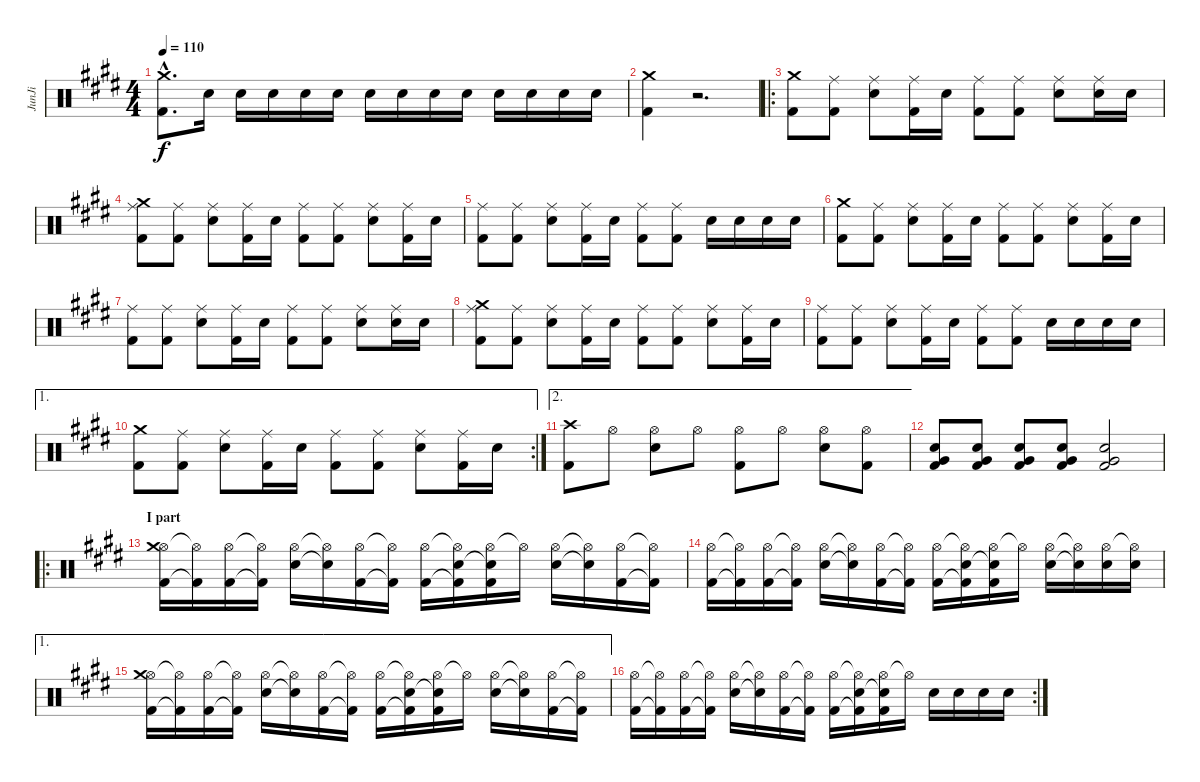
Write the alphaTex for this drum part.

\track ("JunJi" "JunJi") {instrument percussion}
\staff {score}
\articulation defaults
\ts (4 4)
\tempo 110
\clef neutral
\ks c#minor
("Crash medium (hit)"{hac} "Kick (hit) 2"{hac}).8{d dy f} "Snare (hit) 2".16 "Snare (hit) 2".16 "Snare (hit) 2".16 "Snare (hit) 2".16 "Snare (hit) 2".16 "Snare (hit) 2".16 "Snare (hit) 2".16 "Snare (hit) 2".16 "Snare (hit) 2".16 "Snare (hit) 2".16 "Snare (hit) 2".16 "Snare (hit) 2".16 "Snare (hit) 2".16 |
("Crash medium (hit)" "Kick (hit) 2").4 r.2{d} |
\ro
("Crash medium (hit)" "Kick (hit) 2").8 ("Ride (middle)" "Kick (hit) 2").8 ("Ride (middle)" "Snare (hit) 2").8 ("Ride (middle)" "Kick (hit) 2").16 "Snare (hit) 2".16 ("Ride (middle)" "Kick (hit) 2").8 ("Ride (middle)" "Kick (hit) 2").8 ("Ride (middle)" "Snare (hit) 2").8 ("Ride (middle)" "Snare (hit) 2").16 "Snare (hit) 2".16 |
("Ride (middle)" "Kick (hit) 2" "Crash medium (hit)").8 ("Ride (middle)" "Kick (hit) 2").8 ("Ride (middle)" "Snare (hit) 2").8 ("Ride (middle)" "Kick (hit) 2").16 "Snare (hit) 2".16 ("Ride (middle)" "Kick (hit) 2").8 ("Ride (middle)" "Kick (hit) 2").8 ("Ride (middle)" "Snare (hit) 2").8 ("Ride (middle)" "Kick (hit) 2").16 "Snare (hit) 2".16 |
("Ride (middle)" "Kick (hit) 2").8 ("Ride (middle)" "Kick (hit) 2").8 ("Ride (middle)" "Snare (hit) 2").8 ("Ride (middle)" "Kick (hit) 2").16 "Snare (hit) 2".16 ("Ride (middle)" "Kick (hit) 2").8 ("Ride (middle)" "Kick (hit) 2").8 "Snare (hit) 2".16 "Snare (hit) 2".16 "Snare (hit) 2".16 "Snare (hit) 2".16 |
("Crash medium (hit)" "Kick (hit) 2").8 ("Ride (middle)" "Kick (hit) 2").8 ("Ride (middle)" "Snare (hit) 2").8 ("Ride (middle)" "Kick (hit) 2").16 "Snare (hit) 2".16 ("Ride (middle)" "Kick (hit) 2").8 ("Ride (middle)" "Kick (hit) 2").8 ("Ride (middle)" "Snare (hit) 2").8 ("Ride (middle)" "Kick (hit) 2").16 "Snare (hit) 2".16 |
("Ride (middle)" "Kick (hit) 2").8 ("Ride (middle)" "Kick (hit) 2").8 ("Ride (middle)" "Snare (hit) 2").8 ("Ride (middle)" "Kick (hit) 2").16 "Snare (hit) 2".16 ("Ride (middle)" "Kick (hit) 2").8 ("Ride (middle)" "Kick (hit) 2").8 ("Ride (middle)" "Snare (hit) 2").8 ("Ride (middle)" "Snare (hit) 2").16 "Snare (hit) 2".16 |
("Ride (middle)" "Kick (hit) 2" "Crash medium (hit)").8 ("Ride (middle)" "Kick (hit) 2").8 ("Ride (middle)" "Snare (hit) 2").8 ("Ride (middle)" "Kick (hit) 2").16 "Snare (hit) 2".16 ("Ride (middle)" "Kick (hit) 2").8 ("Ride (middle)" "Kick (hit) 2").8 ("Ride (middle)" "Snare (hit) 2").8 ("Ride (middle)" "Kick (hit) 2").16 "Snare (hit) 2".16 |
("Ride (middle)" "Kick (hit) 2").8 ("Ride (middle)" "Kick (hit) 2").8 ("Ride (middle)" "Snare (hit) 2").8 ("Ride (middle)" "Kick (hit) 2").16 "Snare (hit) 2".16 ("Ride (middle)" "Kick (hit) 2").8 ("Ride (middle)" "Kick (hit) 2").8 "Snare (hit) 2".16 "Snare (hit) 2".16 "Snare (hit) 2".16 "Snare (hit) 2".16 |
\ae 1
\rc 2
("Crash medium (hit)" "Kick (hit) 2").8 ("Ride (middle)" "Kick (hit) 2").8 ("Ride (middle)" "Snare (hit) 2").8 ("Ride (middle)" "Kick (hit) 2").16 "Snare (hit) 2".16 ("Ride (middle)" "Kick (hit) 2").8 ("Ride (middle)" "Kick (hit) 2").8 ("Ride (middle)" "Snare (hit) 2").8 ("Ride (middle)" "Kick (hit) 2").16 "Snare (hit) 2".16 |
\ae 2
("Crash high (hit)" "Kick (hit) 2").8 "Hi-Hat (open)".8 ("Hi-Hat (open)" "Snare (hit) 2").8 "Hi-Hat (open)".8 ("Hi-Hat (open)" "Kick (hit) 2").8 "Hi-Hat (open)".8 ("Hi-Hat (open)" "Snare (hit) 2").8 ("Hi-Hat (open)" "Kick (hit) 2").8 |
("Snare (hit) 2" "Kick (hit) 2" "Very Low Tom (hit)").8 ("Snare (hit) 2" "Kick (hit) 2" "Very Low Tom (hit)").8 ("Snare (hit) 2" "Kick (hit) 2" "Very Low Tom (hit)").8 ("Snare (hit) 2" "Kick (hit) 2" "Very Low Tom (hit)").8 ("Snare (hit) 2" "Kick (hit) 2" "Very Low Tom (hit)").2 |
\ro
\section ("" "I part")
("Hi-Hat (open)" "Kick (hit) 2" "Crash medium (hit)").16 ("Hi-Hat (open)"{t} "Kick (hit) 2"{t}).16 ("Hi-Hat (open)" "Kick (hit) 2").16 ("Hi-Hat (open)"{t} "Kick (hit) 2"{t}).16 ("Hi-Hat (open)" "Snare (hit) 2").16 ("Hi-Hat (open)"{t} "Snare (hit) 2"{t}).16 ("Hi-Hat (open)" "Kick (hit) 2").16 ("Hi-Hat (open)"{t} "Kick (hit) 2"{t}).16 ("Hi-Hat (open)" "Kick (hit) 2").16 ("Hi-Hat (open)"{t} "Kick (hit) 2"{t} "Snare (hit) 2").16 ("Hi-Hat (open)" "Kick (hit) 2" "Snare (hit) 2"{t}).16 "Hi-Hat (open)"{t}.16 ("Hi-Hat (open)" "Snare (hit) 2").16 ("Hi-Hat (open)"{t} "Snare (hit) 2"{t}).16 ("Hi-Hat (open)" "Kick (hit) 2").16 ("Hi-Hat (open)"{t} "Kick (hit) 2"{t}).16 |
("Hi-Hat (open)" "Kick (hit) 2").16 ("Hi-Hat (open)"{t} "Kick (hit) 2"{t}).16 ("Hi-Hat (open)" "Kick (hit) 2").16 ("Hi-Hat (open)"{t} "Kick (hit) 2"{t}).16 ("Hi-Hat (open)" "Snare (hit) 2").16 ("Hi-Hat (open)"{t} "Snare (hit) 2"{t}).16 ("Hi-Hat (open)" "Kick (hit) 2").16 ("Hi-Hat (open)"{t} "Kick (hit) 2"{t}).16 ("Hi-Hat (open)" "Kick (hit) 2").16 ("Hi-Hat (open)"{t} "Kick (hit) 2"{t} "Snare (hit) 2").16 ("Hi-Hat (open)" "Kick (hit) 2" "Snare (hit) 2"{t}).16 "Hi-Hat (open)"{t}.16 ("Hi-Hat (open)" "Snare (hit) 2").16 ("Hi-Hat (open)"{t} "Snare (hit) 2"{t}).16 ("Hi-Hat (open)" "Snare (hit) 2").16 ("Hi-Hat (open)"{t} "Snare (hit) 2").16 |
\ae 1
("Hi-Hat (open)" "Kick (hit) 2" "Crash medium (hit)").16 ("Hi-Hat (open)"{t} "Kick (hit) 2"{t}).16 ("Hi-Hat (open)" "Kick (hit) 2").16 ("Hi-Hat (open)"{t} "Kick (hit) 2"{t}).16 ("Hi-Hat (open)" "Snare (hit) 2").16 ("Hi-Hat (open)"{t} "Snare (hit) 2"{t}).16 ("Hi-Hat (open)" "Kick (hit) 2").16 ("Hi-Hat (open)"{t} "Kick (hit) 2"{t}).16 ("Hi-Hat (open)" "Kick (hit) 2").16 ("Hi-Hat (open)"{t} "Kick (hit) 2"{t} "Snare (hit) 2").16 ("Hi-Hat (open)" "Kick (hit) 2" "Snare (hit) 2"{t}).16 "Hi-Hat (open)"{t}.16 ("Hi-Hat (open)" "Snare (hit) 2").16 ("Hi-Hat (open)"{t} "Snare (hit) 2"{t}).16 ("Hi-Hat (open)" "Kick (hit) 2").16 ("Hi-Hat (open)"{t} "Kick (hit) 2"{t}).16 |
\rc 2
("Hi-Hat (open)" "Kick (hit) 2").16 ("Hi-Hat (open)"{t} "Kick (hit) 2"{t}).16 ("Hi-Hat (open)" "Kick (hit) 2").16 ("Hi-Hat (open)"{t} "Kick (hit) 2"{t}).16 ("Hi-Hat (open)" "Snare (hit) 2").16 ("Hi-Hat (open)"{t} "Snare (hit) 2"{t}).16 ("Hi-Hat (open)" "Kick (hit) 2").16 ("Hi-Hat (open)"{t} "Kick (hit) 2"{t}).16 ("Hi-Hat (open)" "Kick (hit) 2").16 ("Hi-Hat (open)"{t} "Kick (hit) 2"{t} "Snare (hit) 2").16 ("Hi-Hat (open)" "Kick (hit) 2" "Snare (hit) 2"{t}).16 "Hi-Hat (open)"{t}.16 "Snare (hit) 2".16 "Snare (hit) 2".16 "Snare (hit) 2".16 "Snare (hit) 2".16
